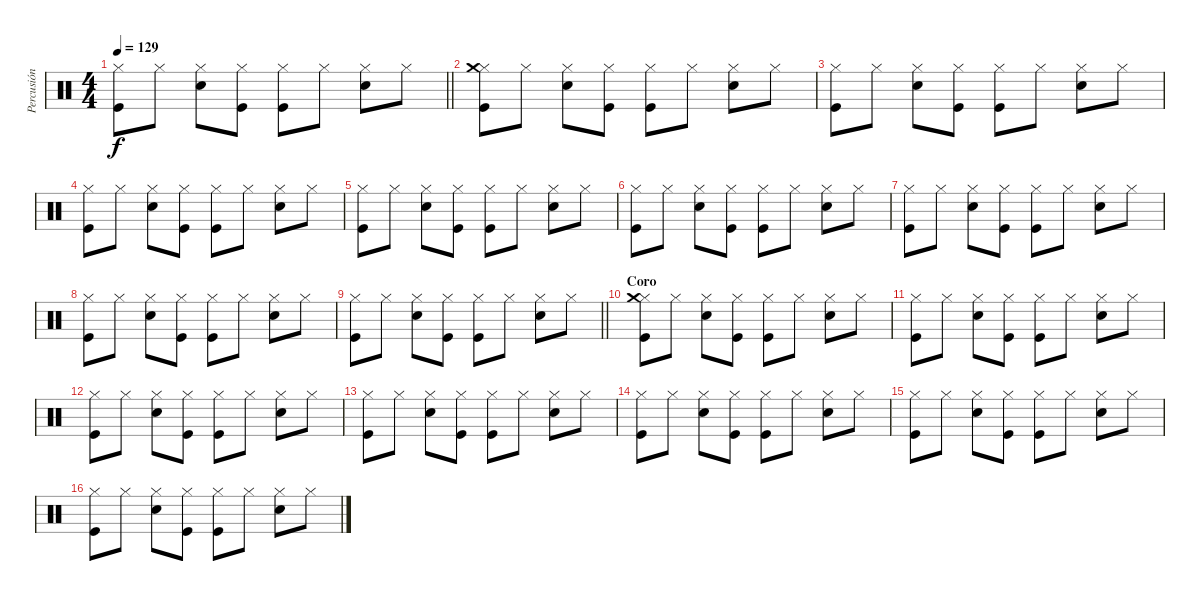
\track ("Percusión" "Percusión") {instrument percussion}
\staff {score}
\articulation defaults
\ts (4 4)
\tempo 129
\clef neutral
\barLineRight lightlight
\ks c
("Hi-Hat (closed)" "Kick (hit)").8{dy f} "Hi-Hat (closed)".8 ("Hi-Hat (closed)" "Electric Snare (hit)").8 ("Hi-Hat (closed)" "Kick (hit)").8 ("Hi-Hat (closed)" "Kick (hit)").8 "Hi-Hat (closed)".8 ("Hi-Hat (closed)" "Electric Snare (hit)").8 "Hi-Hat (closed)".8 |
\section ("" "")
("Hi-Hat (closed)" "Kick (hit)" "Crash medium (hit)").8 "Hi-Hat (closed)".8 ("Hi-Hat (closed)" "Electric Snare (hit)").8 ("Hi-Hat (closed)" "Kick (hit)").8 ("Hi-Hat (closed)" "Kick (hit)").8 "Hi-Hat (closed)".8 ("Hi-Hat (closed)" "Electric Snare (hit)").8 "Hi-Hat (closed)".8 |
("Hi-Hat (closed)" "Kick (hit)").8 "Hi-Hat (closed)".8 ("Hi-Hat (closed)" "Electric Snare (hit)").8 ("Hi-Hat (closed)" "Kick (hit)").8 ("Hi-Hat (closed)" "Kick (hit)").8 "Hi-Hat (closed)".8 ("Hi-Hat (closed)" "Electric Snare (hit)").8 "Hi-Hat (closed)".8 |
("Hi-Hat (closed)" "Kick (hit)").8 "Hi-Hat (closed)".8 ("Hi-Hat (closed)" "Electric Snare (hit)").8 ("Hi-Hat (closed)" "Kick (hit)").8 ("Hi-Hat (closed)" "Kick (hit)").8 "Hi-Hat (closed)".8 ("Hi-Hat (closed)" "Electric Snare (hit)").8 "Hi-Hat (closed)".8 |
("Hi-Hat (closed)" "Kick (hit)").8 "Hi-Hat (closed)".8 ("Hi-Hat (closed)" "Electric Snare (hit)").8 ("Hi-Hat (closed)" "Kick (hit)").8 ("Hi-Hat (closed)" "Kick (hit)").8 "Hi-Hat (closed)".8 ("Hi-Hat (closed)" "Electric Snare (hit)").8 "Hi-Hat (closed)".8 |
("Hi-Hat (closed)" "Kick (hit)").8 "Hi-Hat (closed)".8 ("Hi-Hat (closed)" "Electric Snare (hit)").8 ("Hi-Hat (closed)" "Kick (hit)").8 ("Hi-Hat (closed)" "Kick (hit)").8 "Hi-Hat (closed)".8 ("Hi-Hat (closed)" "Electric Snare (hit)").8 "Hi-Hat (closed)".8 |
("Hi-Hat (closed)" "Kick (hit)").8 "Hi-Hat (closed)".8 ("Hi-Hat (closed)" "Electric Snare (hit)").8 ("Hi-Hat (closed)" "Kick (hit)").8 ("Hi-Hat (closed)" "Kick (hit)").8 "Hi-Hat (closed)".8 ("Hi-Hat (closed)" "Electric Snare (hit)").8 "Hi-Hat (closed)".8 |
("Hi-Hat (closed)" "Kick (hit)").8 "Hi-Hat (closed)".8 ("Hi-Hat (closed)" "Electric Snare (hit)").8 ("Hi-Hat (closed)" "Kick (hit)").8 ("Hi-Hat (closed)" "Kick (hit)").8 "Hi-Hat (closed)".8 ("Hi-Hat (closed)" "Electric Snare (hit)").8 "Hi-Hat (closed)".8 |
\barLineRight lightlight
("Hi-Hat (closed)" "Kick (hit)").8 "Hi-Hat (closed)".8 ("Hi-Hat (closed)" "Electric Snare (hit)").8 ("Hi-Hat (closed)" "Kick (hit)").8 ("Hi-Hat (closed)" "Kick (hit)").8 "Hi-Hat (closed)".8 ("Hi-Hat (closed)" "Electric Snare (hit)").8 "Hi-Hat (closed)".8 |
\section ("" "Coro")
("Hi-Hat (closed)" "Kick (hit)" "Crash medium (hit)").8 "Hi-Hat (closed)".8 ("Hi-Hat (closed)" "Electric Snare (hit)").8 ("Hi-Hat (closed)" "Kick (hit)").8 ("Hi-Hat (closed)" "Kick (hit)").8 "Hi-Hat (closed)".8 ("Hi-Hat (closed)" "Electric Snare (hit)").8 "Hi-Hat (closed)".8 |
("Hi-Hat (closed)" "Kick (hit)").8 "Hi-Hat (closed)".8 ("Hi-Hat (closed)" "Electric Snare (hit)").8 ("Hi-Hat (closed)" "Kick (hit)").8 ("Hi-Hat (closed)" "Kick (hit)").8 "Hi-Hat (closed)".8 ("Hi-Hat (closed)" "Electric Snare (hit)").8 "Hi-Hat (closed)".8 |
("Hi-Hat (closed)" "Kick (hit)").8 "Hi-Hat (closed)".8 ("Hi-Hat (closed)" "Electric Snare (hit)").8 ("Hi-Hat (closed)" "Kick (hit)").8 ("Hi-Hat (closed)" "Kick (hit)").8 "Hi-Hat (closed)".8 ("Hi-Hat (closed)" "Electric Snare (hit)").8 "Hi-Hat (closed)".8 |
("Hi-Hat (closed)" "Kick (hit)").8 "Hi-Hat (closed)".8 ("Hi-Hat (closed)" "Electric Snare (hit)").8 ("Hi-Hat (closed)" "Kick (hit)").8 ("Hi-Hat (closed)" "Kick (hit)").8 "Hi-Hat (closed)".8 ("Hi-Hat (closed)" "Electric Snare (hit)").8 "Hi-Hat (closed)".8 |
("Hi-Hat (closed)" "Kick (hit)").8 "Hi-Hat (closed)".8 ("Hi-Hat (closed)" "Electric Snare (hit)").8 ("Hi-Hat (closed)" "Kick (hit)").8 ("Hi-Hat (closed)" "Kick (hit)").8 "Hi-Hat (closed)".8 ("Hi-Hat (closed)" "Electric Snare (hit)").8 "Hi-Hat (closed)".8 |
("Hi-Hat (closed)" "Kick (hit)").8 "Hi-Hat (closed)".8 ("Hi-Hat (closed)" "Electric Snare (hit)").8 ("Hi-Hat (closed)" "Kick (hit)").8 ("Hi-Hat (closed)" "Kick (hit)").8 "Hi-Hat (closed)".8 ("Hi-Hat (closed)" "Electric Snare (hit)").8 "Hi-Hat (closed)".8 |
("Hi-Hat (closed)" "Kick (hit)").8 "Hi-Hat (closed)".8 ("Hi-Hat (closed)" "Electric Snare (hit)").8 ("Hi-Hat (closed)" "Kick (hit)").8 ("Hi-Hat (closed)" "Kick (hit)").8 "Hi-Hat (closed)".8 ("Hi-Hat (closed)" "Electric Snare (hit)").8 "Hi-Hat (closed)".8
